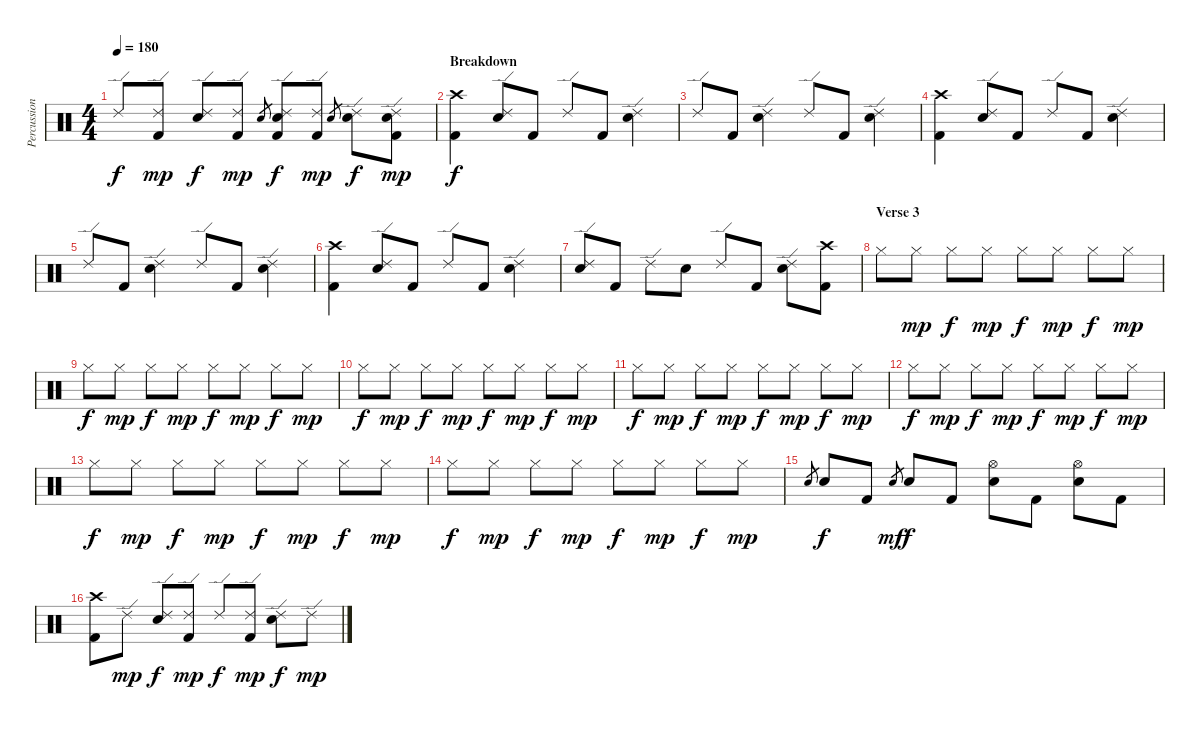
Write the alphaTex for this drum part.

\track ("Percussion" "Percussion") {instrument percussion}
\staff {score}
\articulation defaults
\ts (4 4)
\tempo 180
\clef neutral
\ks c "Ride (edge) 2".8{dy f}
("Ride (edge) 2" "Kick (hit) 2").8{dy mp} ("Ride (edge) 2" "Electric Snare (hit)").8{dy f} ("Ride (edge) 2" "Kick (hit) 2").8{dy mp} "Electric Snare (hit)".8{gr} ("Ride (edge) 2" "Electric Snare (hit)" "Kick (hit) 2").8{dy f} ("Ride (edge) 2" "Kick (hit) 2").8{dy mp} "Electric Snare (hit)".8{gr} ("Ride (edge) 2" "Electric Snare (hit)").8{dy f} ("Ride (edge) 2" "Electric Snare (hit)" "Kick (hit) 2").8{dy mp} |
\section ("" "Breakdown")
("Crash high (hit)" "Kick (hit) 2").4{dy f} ("Ride (edge) 2" "Electric Snare (hit)").8 "Kick (hit) 2".8 "Ride (edge) 2".8 "Kick (hit) 2".8 ("Ride (edge) 2" "Electric Snare (hit)").4 |
"Ride (edge) 2".8 "Kick (hit) 2".8 ("Ride (edge) 2" "Electric Snare (hit)").4 "Ride (edge) 2".8 "Kick (hit) 2".8 ("Ride (edge) 2" "Electric Snare (hit)").4 |
("Crash high (hit)" "Kick (hit) 2").4 ("Ride (edge) 2" "Electric Snare (hit)").8 "Kick (hit) 2".8 "Ride (edge) 2".8 "Kick (hit) 2".8 ("Ride (edge) 2" "Electric Snare (hit)").4 |
"Ride (edge) 2".8 "Kick (hit) 2".8 ("Ride (edge) 2" "Electric Snare (hit)").4 "Ride (edge) 2".8 "Kick (hit) 2".8 ("Ride (edge) 2" "Electric Snare (hit)").4 |
("Crash high (hit)" "Kick (hit) 2").4 ("Ride (edge) 2" "Electric Snare (hit)").8 "Kick (hit) 2".8 "Ride (edge) 2".8 "Kick (hit) 2".8 ("Ride (edge) 2" "Electric Snare (hit)").4 |
("Ride (edge) 2" "Electric Snare (hit)").8 "Kick (hit) 2".8 "Ride (edge) 2".8 "Electric Snare (hit)".8 "Ride (edge) 2".8 "Kick (hit) 2".8 ("Ride (edge) 2" "Electric Snare (hit)").8 ("Crash high (hit)" "Kick (hit) 2").8 |
\section ("" "Verse 3")
"Hi-Hat (closed)".8 "Hi-Hat (closed)".8{dy mp} "Hi-Hat (closed)".8{dy f} "Hi-Hat (closed)".8{dy mp} "Hi-Hat (closed)".8{dy f} "Hi-Hat (closed)".8{dy mp} "Hi-Hat (closed)".8{dy f} "Hi-Hat (closed)".8{dy mp} |
"Hi-Hat (closed)".8{dy f} "Hi-Hat (closed)".8{dy mp} "Hi-Hat (closed)".8{dy f} "Hi-Hat (closed)".8{dy mp} "Hi-Hat (closed)".8{dy f} "Hi-Hat (closed)".8{dy mp} "Hi-Hat (closed)".8{dy f} "Hi-Hat (closed)".8{dy mp} |
"Hi-Hat (closed)".8{dy f} "Hi-Hat (closed)".8{dy mp} "Hi-Hat (closed)".8{dy f} "Hi-Hat (closed)".8{dy mp} "Hi-Hat (closed)".8{dy f} "Hi-Hat (closed)".8{dy mp} "Hi-Hat (closed)".8{dy f} "Hi-Hat (closed)".8{dy mp} |
"Hi-Hat (closed)".8{dy f} "Hi-Hat (closed)".8{dy mp} "Hi-Hat (closed)".8{dy f} "Hi-Hat (closed)".8{dy mp} "Hi-Hat (closed)".8{dy f} "Hi-Hat (closed)".8{dy mp} "Hi-Hat (closed)".8{dy f} "Hi-Hat (closed)".8{dy mp} |
"Hi-Hat (closed)".8{dy f} "Hi-Hat (closed)".8{dy mp} "Hi-Hat (closed)".8{dy f} "Hi-Hat (closed)".8{dy mp} "Hi-Hat (closed)".8{dy f} "Hi-Hat (closed)".8{dy mp} "Hi-Hat (closed)".8{dy f} "Hi-Hat (closed)".8{dy mp} |
"Hi-Hat (closed)".8{dy f} "Hi-Hat (closed)".8{dy mp} "Hi-Hat (closed)".8{dy f} "Hi-Hat (closed)".8{dy mp} "Hi-Hat (closed)".8{dy f} "Hi-Hat (closed)".8{dy mp} "Hi-Hat (closed)".8{dy f} "Hi-Hat (closed)".8{dy mp} |
"Hi-Hat (closed)".8{dy f} "Hi-Hat (closed)".8{dy mp} "Hi-Hat (closed)".8{dy f} "Hi-Hat (closed)".8{dy mp} "Hi-Hat (closed)".8{dy f} "Hi-Hat (closed)".8{dy mp} "Hi-Hat (closed)".8{dy f} "Hi-Hat (closed)".8{dy mp} |
"Electric Snare (hit)".8{gr} "Electric Snare (hit)".8{dy f} "Kick (hit) 2".8 "Electric Snare (hit)".8{gr dy mf} "Electric Snare (hit)".8{dy f} "Kick (hit) 2".8 ("Hi-Hat (open)" "Electric Snare (hit)").8 "Kick (hit) 2".8 ("Hi-Hat (open)" "Electric Snare (hit)").8 "Kick (hit) 2".8 |
("Crash high (hit)" "Kick (hit) 2").8 "Ride (edge) 2".8{dy mp} ("Ride (edge) 2" "Electric Snare (hit)").8{dy f} ("Ride (edge) 2" "Kick (hit) 2").8{dy mp} "Ride (edge) 2".8{dy f} ("Ride (edge) 2" "Kick (hit) 2").8{dy mp} ("Ride (edge) 2" "Electric Snare (hit)").8{dy f} "Ride (edge) 2".8{dy mp}
